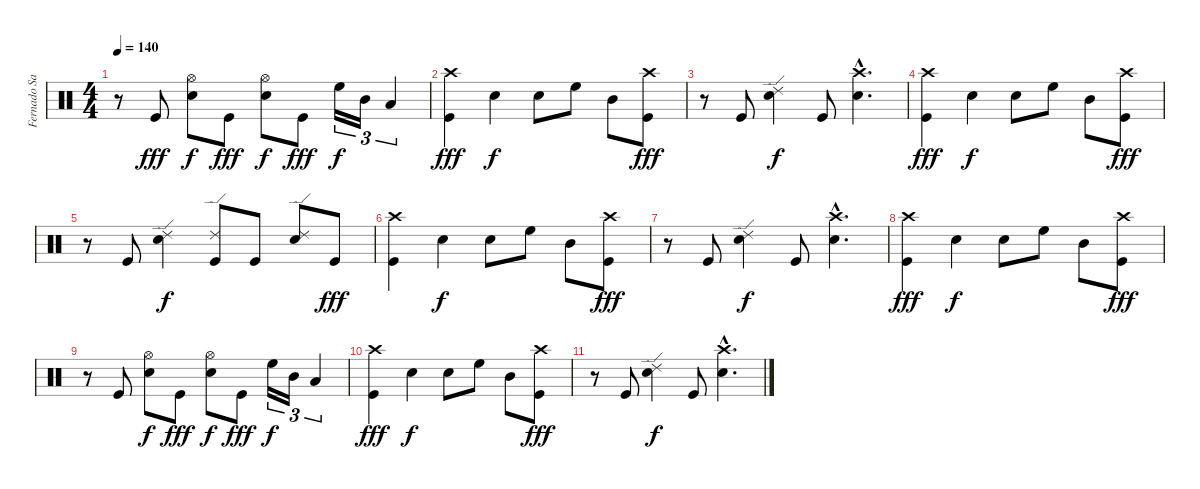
\track ("Fernado Sanchez" "Fernado Sa") {instrument percussion}
\staff {score}
\articulation defaults
\ts (4 4)
\tempo 140
\clef neutral
\ks c
r.8{dy fff} "Kick (hit)".8 ("Hi-Hat (open)" "Electric Snare (hit)").8{dy f} "Kick (hit)".8{dy fff} ("Hi-Hat (open)" "Electric Snare (hit)").8{dy f} "Kick (hit)".8{dy fff} "High Floor Tom (hit)".16{tu (3 2) dy f} "Mid Tom (hit)".16{tu (3 2)} "Low Tom (hit)".4{tu (3 2)} |
("Crash high (hit)" "Kick (hit)").4{dy fff} "Electric Snare (hit)".4{dy f} "Electric Snare (hit)".8 "High Floor Tom (hit)".8 "Mid Tom (hit)".8 ("Crash high (hit)" "Kick (hit)").8{dy fff} |
r.8 "Kick (hit)".8 ("Ride (edge) 2" "Electric Snare (hit)").4{dy f} "Kick (hit)".8 ("Crash high (hit)"{hac} "Electric Snare (hit)"{hac}).4{d} |
("Crash high (hit)" "Kick (hit)").4{dy fff} "Electric Snare (hit)".4{dy f} "Electric Snare (hit)".8 "High Floor Tom (hit)".8 "Mid Tom (hit)".8 ("Crash high (hit)" "Kick (hit)").8{dy fff} |
r.8 "Kick (hit)".8 ("Ride (edge) 2" "Electric Snare (hit)").4{dy f} ("Ride (edge) 2" "Kick (hit)").8 "Kick (hit)".8 ("Ride (edge) 2" "Electric Snare (hit)").8 "Kick (hit)".8{dy fff} |
("Crash high (hit)" "Kick (hit)").4 "Electric Snare (hit)".4{dy f} "Electric Snare (hit)".8 "High Floor Tom (hit)".8 "Mid Tom (hit)".8 ("Crash high (hit)" "Kick (hit)").8{dy fff} |
r.8 "Kick (hit)".8 ("Ride (edge) 2" "Electric Snare (hit)").4{dy f} "Kick (hit)".8 ("Crash high (hit)"{hac} "Electric Snare (hit)"{hac}).4{d} |
("Crash high (hit)" "Kick (hit)").4{dy fff} "Electric Snare (hit)".4{dy f} "Electric Snare (hit)".8 "High Floor Tom (hit)".8 "Mid Tom (hit)".8 ("Crash high (hit)" "Kick (hit)").8{dy fff} |
r.8 "Kick (hit)".8 ("Hi-Hat (open)" "Electric Snare (hit)").8{dy f} "Kick (hit)".8{dy fff} ("Hi-Hat (open)" "Electric Snare (hit)").8{dy f} "Kick (hit)".8{dy fff} "High Floor Tom (hit)".16{tu (3 2) dy f} "Mid Tom (hit)".16{tu (3 2)} "Low Tom (hit)".4{tu (3 2)} |
("Crash high (hit)" "Kick (hit)").4{dy fff} "Electric Snare (hit)".4{dy f} "Electric Snare (hit)".8 "High Floor Tom (hit)".8 "Mid Tom (hit)".8 ("Crash high (hit)" "Kick (hit)").8{dy fff} |
r.8 "Kick (hit)".8 ("Ride (edge) 2" "Electric Snare (hit)").4{dy f} "Kick (hit)".8 ("Crash high (hit)"{hac} "Electric Snare (hit)"{hac}).4{d}
